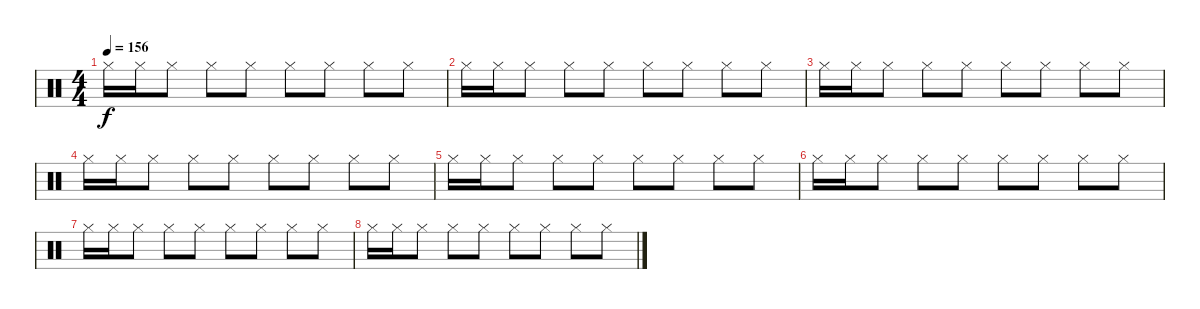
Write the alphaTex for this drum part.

\track "" {instrument percussion}
\staff {score}
\articulation defaults
\ts (4 4)
\tempo 156
\clef neutral
\ks c "Hi-Hat (closed)".16{dy f} "Hi-Hat (closed)".16 "Hi-Hat (closed)".8 "Hi-Hat (closed)".8 "Hi-Hat (closed)".8 "Hi-Hat (closed)".8 "Hi-Hat (closed)".8 "Hi-Hat (closed)".8 "Hi-Hat (closed)".8
|
"Hi-Hat (closed)".16 "Hi-Hat (closed)".16 "Hi-Hat (closed)".8 "Hi-Hat (closed)".8 "Hi-Hat (closed)".8 "Hi-Hat (closed)".8 "Hi-Hat (closed)".8 "Hi-Hat (closed)".8 "Hi-Hat (closed)".8 |
"Hi-Hat (closed)".16 "Hi-Hat (closed)".16 "Hi-Hat (closed)".8 "Hi-Hat (closed)".8 "Hi-Hat (closed)".8 "Hi-Hat (closed)".8 "Hi-Hat (closed)".8 "Hi-Hat (closed)".8 "Hi-Hat (closed)".8 |
"Hi-Hat (closed)".16 "Hi-Hat (closed)".16 "Hi-Hat (closed)".8 "Hi-Hat (closed)".8 "Hi-Hat (closed)".8 "Hi-Hat (closed)".8 "Hi-Hat (closed)".8 "Hi-Hat (closed)".8 "Hi-Hat (closed)".8 |
"Hi-Hat (closed)".16 "Hi-Hat (closed)".16 "Hi-Hat (closed)".8 "Hi-Hat (closed)".8 "Hi-Hat (closed)".8 "Hi-Hat (closed)".8 "Hi-Hat (closed)".8 "Hi-Hat (closed)".8 "Hi-Hat (closed)".8 |
"Hi-Hat (closed)".16 "Hi-Hat (closed)".16 "Hi-Hat (closed)".8 "Hi-Hat (closed)".8 "Hi-Hat (closed)".8 "Hi-Hat (closed)".8 "Hi-Hat (closed)".8 "Hi-Hat (closed)".8 "Hi-Hat (closed)".8 |
"Hi-Hat (closed)".16 "Hi-Hat (closed)".16 "Hi-Hat (closed)".8 "Hi-Hat (closed)".8 "Hi-Hat (closed)".8 "Hi-Hat (closed)".8 "Hi-Hat (closed)".8 "Hi-Hat (closed)".8 "Hi-Hat (closed)".8 |
"Hi-Hat (closed)".16 "Hi-Hat (closed)".16 "Hi-Hat (closed)".8 "Hi-Hat (closed)".8 "Hi-Hat (closed)".8 "Hi-Hat (closed)".8 "Hi-Hat (closed)".8 "Hi-Hat (closed)".8 "Hi-Hat (closed)".8
